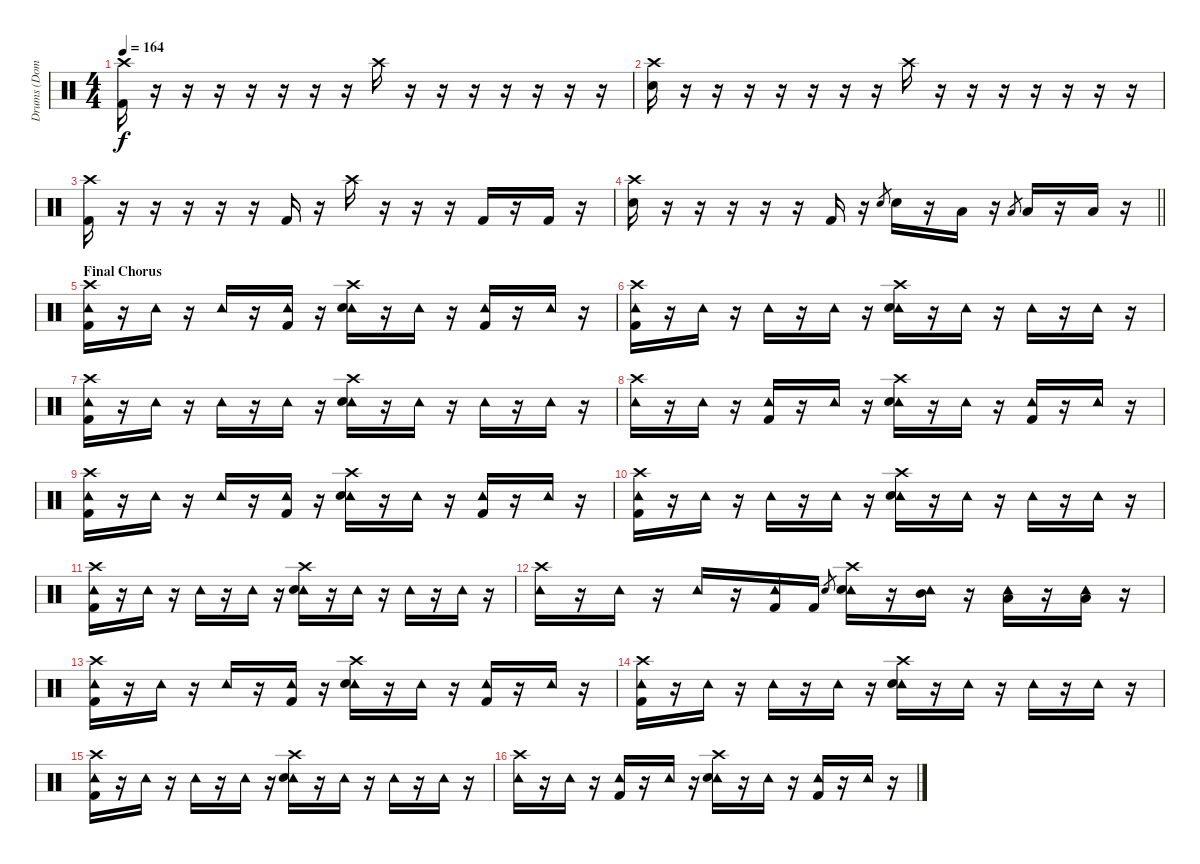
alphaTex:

\track ("Drums (Dominik)" "Drums (Dom") {instrument percussion}
\staff {score}
\articulation defaults
\ts (4 4)
\tempo 164
\clef neutral
\ks c
("Crash high (hit)" "Kick (hit) 2").16{dy f} r.16 r.16 r.16 r.16 r.16 r.16 r.16 "Crash high (hit)".16 r.16 r.16 r.16 r.16 r.16 r.16 r.16 |
("Crash high (hit)" "Electric Snare (hit)").16 r.16 r.16 r.16 r.16 r.16 r.16 r.16 "Crash high (hit)".16 r.16 r.16 r.16 r.16 r.16 r.16 r.16 |
("Crash high (hit)" "Kick (hit) 2").16 r.16 r.16 r.16 r.16 r.16 "Kick (hit) 2".16 r.16 "Crash high (hit)".16 r.16 r.16 r.16 "Kick (hit) 2".16 r.16 "Kick (hit) 2".16 r.16 |
\barLineRight lightlight
("Crash high (hit)" "Electric Snare (hit)").16 r.16 r.16 r.16 r.16 r.16 "Kick (hit) 2".16 r.16 "Electric Snare (hit)".8{gr} "Electric Snare (hit)".16 r.16 "Low Tom (hit)".16 r.16 "Low Floor Tom (hit)".8{gr} "Low Floor Tom (hit)".16 r.16 "Low Floor Tom (hit)".16 r.16 |
\section ("" "Final Chorus")
("Crash high (hit)" "Tambourine (hit)" "Kick (hit) 2").16 r.16 "Tambourine (hit)".16 r.16 "Tambourine (hit)".16 r.16 ("Tambourine (hit)" "Kick (hit) 2").16 r.16 ("Crash high (hit)" "Tambourine (hit)" "Electric Snare (hit)").16 r.16 "Tambourine (hit)".16 r.16 ("Tambourine (hit)" "Kick (hit) 2").16 r.16 "Tambourine (hit)".16 r.16 |
("Crash high (hit)" "Tambourine (hit)" "Kick (hit) 2").16 r.16 "Tambourine (hit)".16 r.16 "Tambourine (hit)".16 r.16 "Tambourine (hit)".16 r.16 ("Crash high (hit)" "Tambourine (hit)" "Electric Snare (hit)").16 r.16 "Tambourine (hit)".16 r.16 "Tambourine (hit)".16 r.16 "Tambourine (hit)".16 r.16 |
("Crash high (hit)" "Tambourine (hit)" "Kick (hit) 2").16 r.16 "Tambourine (hit)".16 r.16 "Tambourine (hit)".16 r.16 "Tambourine (hit)".16 r.16 ("Crash high (hit)" "Tambourine (hit)" "Electric Snare (hit)").16 r.16 "Tambourine (hit)".16 r.16 "Tambourine (hit)".16 r.16 "Tambourine (hit)".16 r.16 |
("Crash high (hit)" "Tambourine (hit)").16 r.16 "Tambourine (hit)".16 r.16 ("Tambourine (hit)" "Kick (hit) 2").16 r.16 "Tambourine (hit)".16 r.16 ("Crash high (hit)" "Tambourine (hit)" "Electric Snare (hit)").16 r.16 "Tambourine (hit)".16 r.16 ("Tambourine (hit)" "Kick (hit) 2").16 r.16 "Tambourine (hit)".16 r.16 |
("Crash high (hit)" "Tambourine (hit)" "Kick (hit) 2").16 r.16 "Tambourine (hit)".16 r.16 "Tambourine (hit)".16 r.16 ("Tambourine (hit)" "Kick (hit) 2").16 r.16 ("Crash high (hit)" "Tambourine (hit)" "Electric Snare (hit)").16 r.16 "Tambourine (hit)".16 r.16 ("Tambourine (hit)" "Kick (hit) 2").16 r.16 "Tambourine (hit)".16 r.16 |
("Crash high (hit)" "Tambourine (hit)" "Kick (hit) 2").16 r.16 "Tambourine (hit)".16 r.16 "Tambourine (hit)".16 r.16 "Tambourine (hit)".16 r.16 ("Crash high (hit)" "Tambourine (hit)" "Electric Snare (hit)").16 r.16 "Tambourine (hit)".16 r.16 "Tambourine (hit)".16 r.16 "Tambourine (hit)".16 r.16 |
("Crash high (hit)" "Tambourine (hit)" "Kick (hit) 2").16 r.16 "Tambourine (hit)".16 r.16 "Tambourine (hit)".16 r.16 "Tambourine (hit)".16 r.16 ("Crash high (hit)" "Tambourine (hit)" "Electric Snare (hit)").16 r.16 "Tambourine (hit)".16 r.16 "Tambourine (hit)".16 r.16 "Tambourine (hit)".16 r.16 |
("Crash high (hit)" "Tambourine (hit)").16 r.16 "Tambourine (hit)".16 r.16 "Tambourine (hit)".16 r.16 ("Tambourine (hit)" "Kick (hit) 2").16 "Kick (hit) 2".16 "Electric Snare (hit)".8{gr} ("Crash high (hit)" "Tambourine (hit)" "Electric Snare (hit)").16 r.16 ("Tambourine (hit)" "Mid Tom (hit)").16 r.16 ("Tambourine (hit)" "Low Tom (hit)").16 r.16 ("Tambourine (hit)" "Low Floor Tom (hit)").16 r.16 |
("Crash high (hit)" "Tambourine (hit)" "Kick (hit) 2").16 r.16 "Tambourine (hit)".16 r.16 "Tambourine (hit)".16 r.16 ("Tambourine (hit)" "Kick (hit) 2").16 r.16 ("Crash high (hit)" "Tambourine (hit)" "Electric Snare (hit)").16 r.16 "Tambourine (hit)".16 r.16 ("Tambourine (hit)" "Kick (hit) 2").16 r.16 "Tambourine (hit)".16 r.16 |
("Crash high (hit)" "Tambourine (hit)" "Kick (hit) 2").16 r.16 "Tambourine (hit)".16 r.16 "Tambourine (hit)".16 r.16 "Tambourine (hit)".16 r.16 ("Crash high (hit)" "Tambourine (hit)" "Electric Snare (hit)").16 r.16 "Tambourine (hit)".16 r.16 "Tambourine (hit)".16 r.16 "Tambourine (hit)".16 r.16 |
("Crash high (hit)" "Tambourine (hit)" "Kick (hit) 2").16 r.16 "Tambourine (hit)".16 r.16 "Tambourine (hit)".16 r.16 "Tambourine (hit)".16 r.16 ("Crash high (hit)" "Tambourine (hit)" "Electric Snare (hit)").16 r.16 "Tambourine (hit)".16 r.16 "Tambourine (hit)".16 r.16 "Tambourine (hit)".16 r.16 |
("Crash high (hit)" "Tambourine (hit)").16 r.16 "Tambourine (hit)".16 r.16 ("Tambourine (hit)" "Kick (hit) 2").16 r.16 "Tambourine (hit)".16 r.16 ("Crash high (hit)" "Tambourine (hit)" "Electric Snare (hit)").16 r.16 "Tambourine (hit)".16 r.16 ("Tambourine (hit)" "Kick (hit) 2").16 r.16 "Tambourine (hit)".16 r.16
